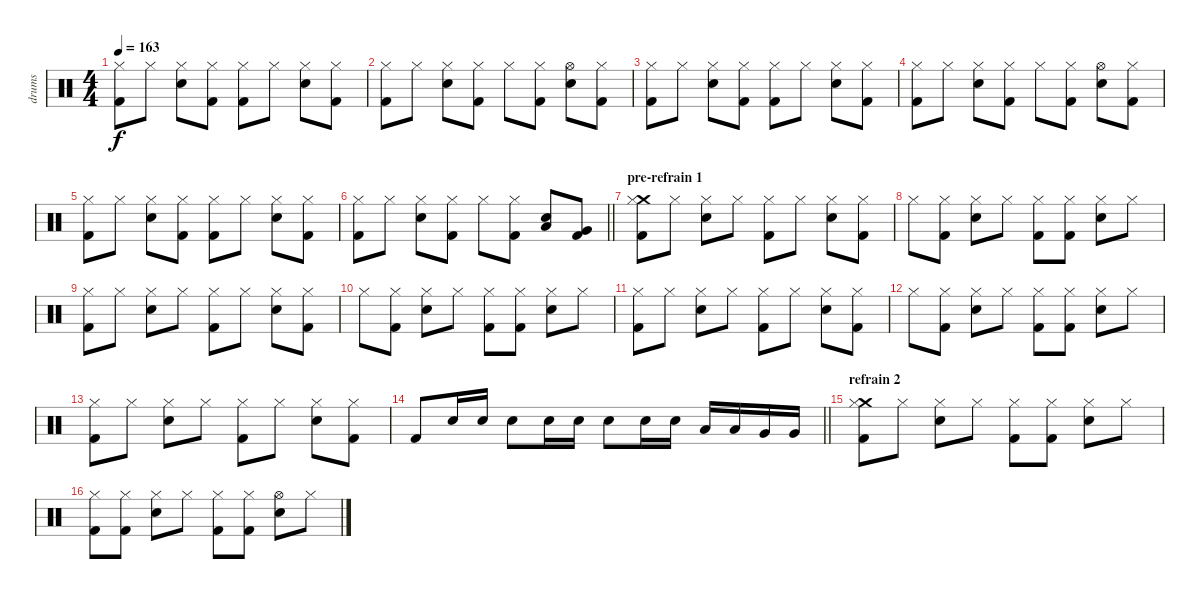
\track ("drums" "drums") {instrument percussion}
\staff {score}
\articulation defaults
\ts (4 4)
\tempo 163
\clef neutral
\ks c
("Hi-Hat (closed)" "Kick (hit) 2").8{dy f} "Hi-Hat (closed)".8 ("Hi-Hat (closed)" "Electric Snare (hit)").8 ("Hi-Hat (closed)" "Kick (hit) 2").8 ("Hi-Hat (closed)" "Kick (hit) 2").8 "Hi-Hat (closed)".8 ("Hi-Hat (closed)" "Electric Snare (hit)").8 ("Hi-Hat (closed)" "Kick (hit) 2").8 |
("Hi-Hat (closed)" "Kick (hit) 2").8 "Hi-Hat (closed)".8 ("Hi-Hat (closed)" "Electric Snare (hit)").8 ("Hi-Hat (closed)" "Kick (hit) 2").8 "Hi-Hat (closed)".8 ("Hi-Hat (closed)" "Kick (hit) 2").8 ("Hi-Hat (open)" "Electric Snare (hit)").8 ("Hi-Hat (closed)" "Kick (hit) 2").8 |
("Hi-Hat (closed)" "Kick (hit) 2").8 "Hi-Hat (closed)".8 ("Hi-Hat (closed)" "Electric Snare (hit)").8 ("Hi-Hat (closed)" "Kick (hit) 2").8 ("Hi-Hat (closed)" "Kick (hit) 2").8 "Hi-Hat (closed)".8 ("Hi-Hat (closed)" "Electric Snare (hit)").8 ("Hi-Hat (closed)" "Kick (hit) 2").8 |
("Hi-Hat (closed)" "Kick (hit) 2").8 "Hi-Hat (closed)".8 ("Hi-Hat (closed)" "Electric Snare (hit)").8 ("Hi-Hat (closed)" "Kick (hit) 2").8 "Hi-Hat (closed)".8 ("Hi-Hat (closed)" "Kick (hit) 2").8 ("Hi-Hat (open)" "Electric Snare (hit)").8 ("Hi-Hat (closed)" "Kick (hit) 2").8 |
("Hi-Hat (closed)" "Kick (hit) 2").8 "Hi-Hat (closed)".8 ("Hi-Hat (closed)" "Electric Snare (hit)").8 ("Hi-Hat (closed)" "Kick (hit) 2").8 ("Hi-Hat (closed)" "Kick (hit) 2").8 "Hi-Hat (closed)".8 ("Hi-Hat (closed)" "Electric Snare (hit)").8 ("Hi-Hat (closed)" "Kick (hit) 2").8 |
\barLineRight lightlight
("Hi-Hat (closed)" "Kick (hit) 2").8 "Hi-Hat (closed)".8 ("Hi-Hat (closed)" "Electric Snare (hit)").8 ("Hi-Hat (closed)" "Kick (hit) 2").8 "Hi-Hat (closed)".8 ("Hi-Hat (closed)" "Kick (hit) 2").8 ("Low Tom (hit)" "Electric Snare (hit)").8 ("Very Low Tom (hit)" "Kick (hit) 2").8 |
\section ("" "pre-refrain 1")
("Crash medium (hit)" "Hi-Hat (closed)" "Kick (hit) 2").8 "Hi-Hat (closed)".8 ("Hi-Hat (closed)" "Electric Snare (hit)").8 "Hi-Hat (closed)".8 ("Hi-Hat (closed)" "Kick (hit) 2").8 "Hi-Hat (closed)".8 ("Hi-Hat (closed)" "Electric Snare (hit)").8 ("Hi-Hat (closed)" "Kick (hit) 2").8 |
"Hi-Hat (closed)".8 ("Hi-Hat (closed)" "Kick (hit) 2").8 ("Hi-Hat (closed)" "Electric Snare (hit)").8 "Hi-Hat (closed)".8 ("Hi-Hat (closed)" "Kick (hit) 2").8 ("Hi-Hat (closed)" "Kick (hit) 2").8 ("Hi-Hat (closed)" "Electric Snare (hit)").8 "Hi-Hat (closed)".8 |
("Hi-Hat (closed)" "Kick (hit) 2").8 "Hi-Hat (closed)".8 ("Hi-Hat (closed)" "Electric Snare (hit)").8 "Hi-Hat (closed)".8 ("Hi-Hat (closed)" "Kick (hit) 2").8 "Hi-Hat (closed)".8 ("Hi-Hat (closed)" "Electric Snare (hit)").8 ("Hi-Hat (closed)" "Kick (hit) 2").8 |
"Hi-Hat (closed)".8 ("Hi-Hat (closed)" "Kick (hit) 2").8 ("Hi-Hat (closed)" "Electric Snare (hit)").8 "Hi-Hat (closed)".8 ("Hi-Hat (closed)" "Kick (hit) 2").8 ("Hi-Hat (closed)" "Kick (hit) 2").8 ("Hi-Hat (closed)" "Electric Snare (hit)").8 "Hi-Hat (closed)".8 |
("Hi-Hat (closed)" "Kick (hit) 2").8 "Hi-Hat (closed)".8 ("Hi-Hat (closed)" "Electric Snare (hit)").8 "Hi-Hat (closed)".8 ("Hi-Hat (closed)" "Kick (hit) 2").8 "Hi-Hat (closed)".8 ("Hi-Hat (closed)" "Electric Snare (hit)").8 ("Hi-Hat (closed)" "Kick (hit) 2").8 |
"Hi-Hat (closed)".8 ("Hi-Hat (closed)" "Kick (hit) 2").8 ("Hi-Hat (closed)" "Electric Snare (hit)").8 "Hi-Hat (closed)".8 ("Hi-Hat (closed)" "Kick (hit) 2").8 ("Hi-Hat (closed)" "Kick (hit) 2").8 ("Hi-Hat (closed)" "Electric Snare (hit)").8 "Hi-Hat (closed)".8 |
("Hi-Hat (closed)" "Kick (hit) 2").8 "Hi-Hat (closed)".8 ("Hi-Hat (closed)" "Electric Snare (hit)").8 "Hi-Hat (closed)".8 ("Hi-Hat (closed)" "Kick (hit) 2").8 "Hi-Hat (closed)".8 ("Hi-Hat (closed)" "Electric Snare (hit)").8 ("Hi-Hat (closed)" "Kick (hit) 2").8 |
\barLineRight lightlight "Kick (hit) 2".8 "Electric Snare (hit)".16 "Electric Snare (hit)".16 "Electric Snare (hit)".8 "Electric Snare (hit)".16 "Electric Snare (hit)".16 "Electric Snare (hit)".8 "Electric Snare (hit)".16 "Electric Snare (hit)".16 "Low Tom (hit)".16 "Low Tom (hit)".16 "Very Low Tom (hit)".16 "Very Low Tom (hit)".16
|
\section ("" "refrain 2")
("Crash medium (hit)" "Hi-Hat (closed)" "Kick (hit) 2").8 "Hi-Hat (closed)".8 ("Hi-Hat (closed)" "Electric Snare (hit)").8 "Hi-Hat (closed)".8 ("Hi-Hat (closed)" "Kick (hit) 2").8 ("Hi-Hat (closed)" "Kick (hit) 2").8 ("Hi-Hat (closed)" "Electric Snare (hit)").8 "Hi-Hat (closed)".8 |
("Hi-Hat (closed)" "Kick (hit) 2").8 ("Hi-Hat (closed)" "Kick (hit) 2").8 ("Hi-Hat (closed)" "Electric Snare (hit)").8 "Hi-Hat (closed)".8 ("Hi-Hat (closed)" "Kick (hit) 2").8 ("Hi-Hat (closed)" "Kick (hit) 2").8 ("Hi-Hat (open)" "Electric Snare (hit)").8 "Hi-Hat (closed)".8
